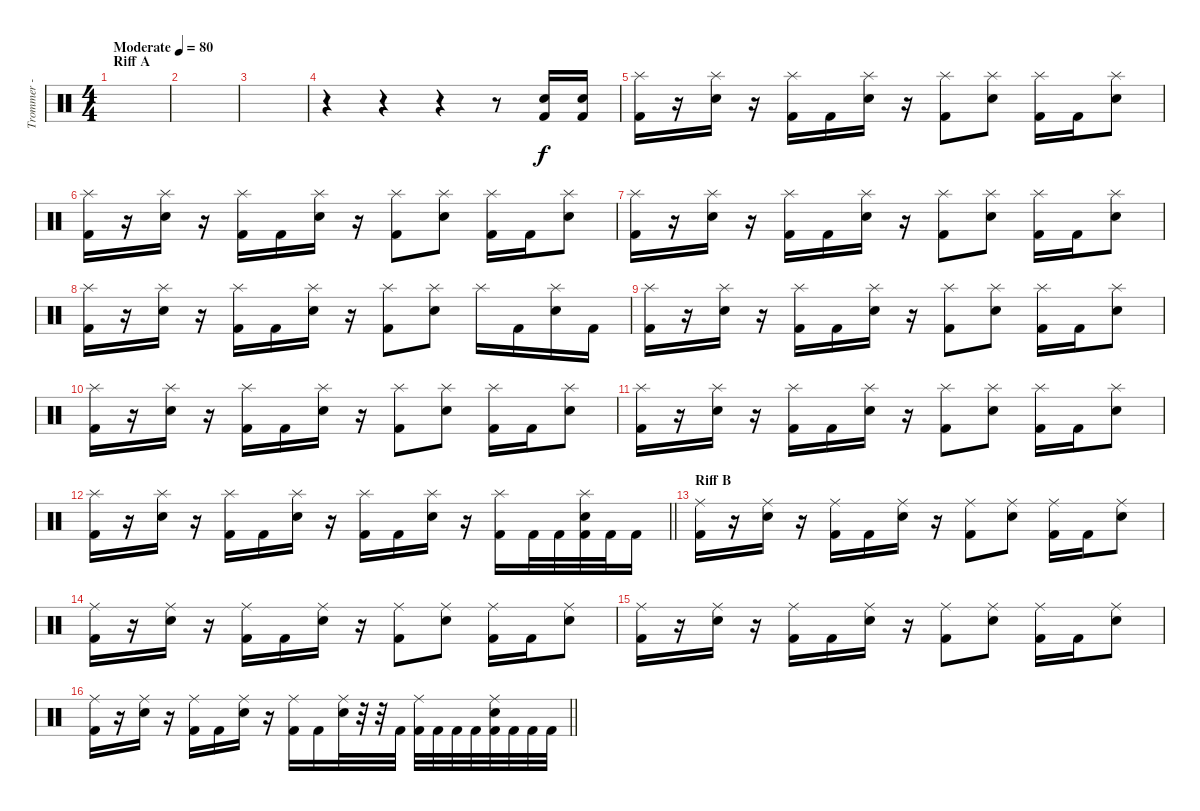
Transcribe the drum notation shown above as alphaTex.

\track ("Trommer - Måtten Møbelbanker" "Trommer - ") {instrument percussion}
\staff {score}
\articulation defaults
\ts (4 4)
\section ("" "Riff A")
\tempo (80 "Moderate")
\clef neutral
\ks c
|
|
|
r.4 r.4 r.4 r.8 ("Kick (hit) 2" "Electric Snare (hit)").16 ("Kick (hit) 2" "Electric Snare (hit)").16 |
("Splash (hit)" "Kick (hit) 2").16 r.16 ("Splash (hit)" "Electric Snare (hit)").16 r.16 ("Splash (hit)" "Kick (hit) 2").16 "Kick (hit) 2".16 ("Splash (hit)" "Electric Snare (hit)").16 r.16 ("Splash (hit)" "Kick (hit) 2").8 ("Splash (hit)" "Electric Snare (hit)").8 ("Splash (hit)" "Kick (hit) 2").16 "Kick (hit) 2".16 ("Splash (hit)" "Electric Snare (hit)").8 |
("Splash (hit)" "Kick (hit) 2").16 r.16 ("Splash (hit)" "Electric Snare (hit)").16 r.16 ("Splash (hit)" "Kick (hit) 2").16 "Kick (hit) 2".16 ("Splash (hit)" "Electric Snare (hit)").16 r.16 ("Splash (hit)" "Kick (hit) 2").8 ("Splash (hit)" "Electric Snare (hit)").8 ("Splash (hit)" "Kick (hit) 2").16 "Kick (hit) 2".16 ("Splash (hit)" "Electric Snare (hit)").8 |
("Splash (hit)" "Kick (hit) 2").16 r.16 ("Splash (hit)" "Electric Snare (hit)").16 r.16 ("Splash (hit)" "Kick (hit) 2").16 "Kick (hit) 2".16 ("Splash (hit)" "Electric Snare (hit)").16 r.16 ("Splash (hit)" "Kick (hit) 2").8 ("Splash (hit)" "Electric Snare (hit)").8 ("Splash (hit)" "Kick (hit) 2").16 "Kick (hit) 2".16 ("Splash (hit)" "Electric Snare (hit)").8 |
("Splash (hit)" "Kick (hit) 2").16 r.16 ("Splash (hit)" "Electric Snare (hit)").16 r.16 ("Splash (hit)" "Kick (hit) 2").16 "Kick (hit) 2".16 ("Splash (hit)" "Electric Snare (hit)").16 r.16 ("Splash (hit)" "Kick (hit) 2").8 ("Splash (hit)" "Electric Snare (hit)").8 "Splash (hit)".16 "Kick (hit) 2".16 ("Splash (hit)" "Electric Snare (hit)").16 "Kick (hit) 2".16 |
("Splash (hit)" "Kick (hit) 2").16 r.16 ("Splash (hit)" "Electric Snare (hit)").16 r.16 ("Splash (hit)" "Kick (hit) 2").16 "Kick (hit) 2".16 ("Splash (hit)" "Electric Snare (hit)").16 r.16 ("Splash (hit)" "Kick (hit) 2").8 ("Splash (hit)" "Electric Snare (hit)").8 ("Splash (hit)" "Kick (hit) 2").16 "Kick (hit) 2".16 ("Splash (hit)" "Electric Snare (hit)").8 |
("Splash (hit)" "Kick (hit) 2").16 r.16 ("Splash (hit)" "Electric Snare (hit)").16 r.16 ("Splash (hit)" "Kick (hit) 2").16 "Kick (hit) 2".16 ("Splash (hit)" "Electric Snare (hit)").16 r.16 ("Splash (hit)" "Kick (hit) 2").8 ("Splash (hit)" "Electric Snare (hit)").8 ("Splash (hit)" "Kick (hit) 2").16 "Kick (hit) 2".16 ("Splash (hit)" "Electric Snare (hit)").8 |
("Splash (hit)" "Kick (hit) 2").16 r.16 ("Splash (hit)" "Electric Snare (hit)").16 r.16 ("Splash (hit)" "Kick (hit) 2").16 "Kick (hit) 2".16 ("Splash (hit)" "Electric Snare (hit)").16 r.16 ("Splash (hit)" "Kick (hit) 2").8 ("Splash (hit)" "Electric Snare (hit)").8 ("Splash (hit)" "Kick (hit) 2").16 "Kick (hit) 2".16 ("Splash (hit)" "Electric Snare (hit)").8 |
\barLineRight lightlight
("Splash (hit)" "Kick (hit) 2").16 r.16 ("Splash (hit)" "Electric Snare (hit)").16 r.16 ("Splash (hit)" "Kick (hit) 2").16 "Kick (hit) 2".16 ("Splash (hit)" "Electric Snare (hit)").16 r.16 ("Splash (hit)" "Kick (hit) 2").16 "Kick (hit) 2".16 ("Splash (hit)" "Electric Snare (hit)").16 r.16 ("Splash (hit)" "Kick (hit) 2").16 "Kick (hit) 2".32 "Kick (hit) 2".32 ("Splash (hit)" "Electric Snare (hit)" "Kick (hit) 2").32 "Kick (hit) 2".32 "Kick (hit) 2".16 |
\section ("" "Riff B")
("Ride (middle)" "Kick (hit) 2").16 r.16 ("Ride (middle)" "Electric Snare (hit)").16 r.16 ("Ride (middle)" "Kick (hit) 2").16 "Kick (hit) 2".16 ("Ride (middle)" "Electric Snare (hit)").16 r.16 ("Ride (middle)" "Kick (hit) 2").8 ("Ride (middle)" "Electric Snare (hit)").8 ("Ride (middle)" "Kick (hit) 2").16 "Kick (hit) 2".16 ("Ride (middle)" "Electric Snare (hit)").8 |
("Ride (middle)" "Kick (hit) 2").16 r.16 ("Ride (middle)" "Electric Snare (hit)").16 r.16 ("Ride (middle)" "Kick (hit) 2").16 "Kick (hit) 2".16 ("Ride (middle)" "Electric Snare (hit)").16 r.16 ("Ride (middle)" "Kick (hit) 2").8 ("Ride (middle)" "Electric Snare (hit)").8 ("Ride (middle)" "Kick (hit) 2").16 "Kick (hit) 2".16 ("Ride (middle)" "Electric Snare (hit)").8 |
("Ride (middle)" "Kick (hit) 2").16 r.16 ("Ride (middle)" "Electric Snare (hit)").16 r.16 ("Ride (middle)" "Kick (hit) 2").16 "Kick (hit) 2".16 ("Ride (middle)" "Electric Snare (hit)").16 r.16 ("Ride (middle)" "Kick (hit) 2").8 ("Ride (middle)" "Electric Snare (hit)").8 ("Ride (middle)" "Kick (hit) 2").16 "Kick (hit) 2".16 ("Ride (middle)" "Electric Snare (hit)").8 |
\barLineRight lightlight
("Ride (middle)" "Kick (hit) 2").16 r.16 ("Ride (middle)" "Electric Snare (hit)").16 r.16 ("Ride (middle)" "Kick (hit) 2").16 "Kick (hit) 2".16 ("Ride (middle)" "Electric Snare (hit)").16 r.16 ("Ride (middle)" "Kick (hit) 2").16 "Kick (hit) 2".16 ("Ride (middle)" "Electric Snare (hit)").32 r.32 r.32 "Kick (hit) 2".32 ("Ride (middle)" "Kick (hit) 2").32 "Kick (hit) 2".32 "Kick (hit) 2".32 "Kick (hit) 2".32 ("Ride (middle)" "Electric Snare (hit)" "Kick (hit) 2").32 "Kick (hit) 2".32 "Kick (hit) 2".32 "Kick (hit) 2".32
